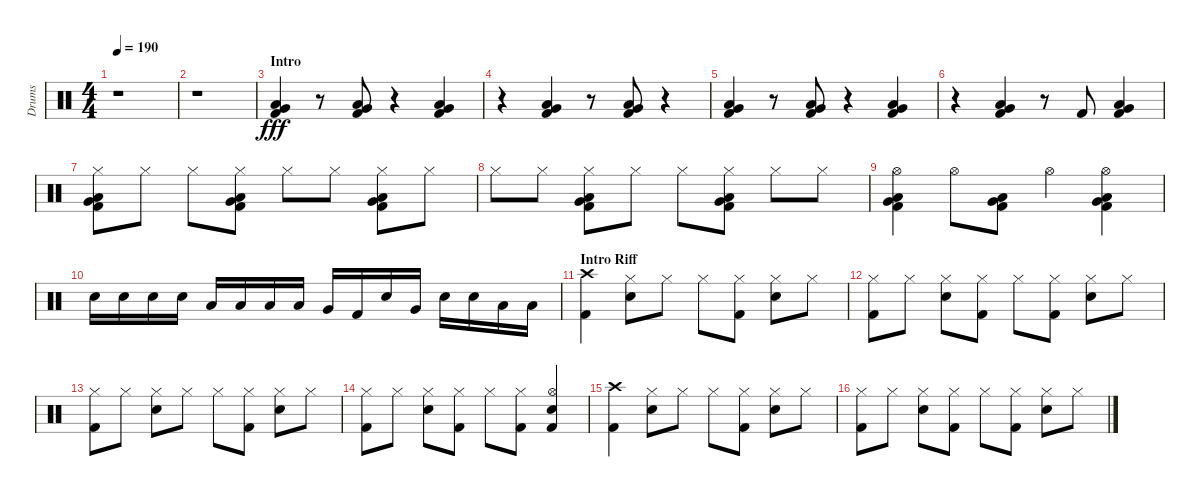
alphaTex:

\track ("Drums" "Drums") {instrument percussion}
\staff {score}
\articulation defaults
\ts (4 4)
\tempo 190
\clef neutral
\ks aminor
r.1{dy fff} |
r.1 |
\section ("" "Intro")
("Kick (hit) 2" "Low Floor Tom (hit)" "Very Low Tom (hit)").4 r.8 ("Kick (hit) 2" "Low Floor Tom (hit)" "Very Low Tom (hit)").8 r.4 ("Kick (hit) 2" "Low Floor Tom (hit)" "Very Low Tom (hit)").4 |
r.4 ("Kick (hit) 2" "Low Floor Tom (hit)" "Very Low Tom (hit)").4 r.8 ("Low Floor Tom (hit)" "Kick (hit) 2" "Very Low Tom (hit)").8 r.4 |
("Kick (hit) 2" "Low Floor Tom (hit)" "Very Low Tom (hit)").4 r.8 ("Kick (hit) 2" "Low Floor Tom (hit)" "Very Low Tom (hit)").8 r.4 ("Low Floor Tom (hit)" "Kick (hit) 2" "Very Low Tom (hit)").4 |
r.4 ("Low Floor Tom (hit)" "Kick (hit) 2" "Very Low Tom (hit)").4 r.8 "Kick (hit) 2".8 ("Kick (hit) 2" "Low Floor Tom (hit)" "Very Low Tom (hit)").4 |
("Low Floor Tom (hit)" "Hi-Hat (closed)" "Kick (hit) 2" "Very Low Tom (hit)").8 "Hi-Hat (closed)".8 "Hi-Hat (closed)".8 ("Kick (hit) 2" "Low Floor Tom (hit)" "Hi-Hat (closed)" "Very Low Tom (hit)").8 "Hi-Hat (closed)".8 "Hi-Hat (closed)".8 ("Kick (hit) 2" "Hi-Hat (closed)" "Low Floor Tom (hit)" "Very Low Tom (hit)").8 "Hi-Hat (closed)".8 |
"Hi-Hat (closed)".8 "Hi-Hat (closed)".8 ("Kick (hit) 2" "Low Floor Tom (hit)" "Hi-Hat (closed)" "Very Low Tom (hit)").8 "Hi-Hat (closed)".8 "Hi-Hat (closed)".8 ("Kick (hit) 2" "Low Floor Tom (hit)" "Hi-Hat (closed)" "Very Low Tom (hit)").8 "Hi-Hat (closed)".8 "Hi-Hat (closed)".8 |
("Kick (hit) 2" "Very Low Tom (hit)" "Low Floor Tom (hit)" "Hi-Hat (open)").4 "Hi-Hat (open)".8 ("Kick (hit) 2" "Low Floor Tom (hit)" "Very Low Tom (hit)").8 "Hi-Hat (open)".4 ("Kick (hit) 2" "Very Low Tom (hit)" "Low Floor Tom (hit)" "Hi-Hat (open)").4 |
"Snare (hit) 2".16 "Snare (hit) 2".16 "Snare (hit) 2".16 "Snare (hit) 2".16 "Low Tom (hit)".16 "Low Tom (hit)".16 "Low Tom (hit)".16 "Low Tom (hit)".16 "Very Low Tom (hit)".16 "Kick (hit) 2".16 "Snare (hit) 2".16 "Very Low Tom (hit)".16 "Snare (hit) 2".16 "Snare (hit) 2".16 "Low Floor Tom (hit)".16 "Low Floor Tom (hit)".16 |
\section ("" "Intro Riff")
("Kick (hit) 2" "Crash high (hit)").4 ("Snare (hit) 2" "Hi-Hat (closed)").8 "Hi-Hat (closed)".8 "Hi-Hat (closed)".8 ("Kick (hit) 2" "Hi-Hat (closed)").8 ("Snare (hit) 2" "Hi-Hat (closed)").8 "Hi-Hat (closed)".8 |
("Kick (hit) 2" "Hi-Hat (closed)").8 "Hi-Hat (closed)".8 ("Snare (hit) 2" "Hi-Hat (closed)").8 ("Kick (hit) 2" "Hi-Hat (closed)").8 "Hi-Hat (closed)".8 ("Kick (hit) 2" "Hi-Hat (closed)").8 ("Snare (hit) 2" "Hi-Hat (closed)").8 "Hi-Hat (closed)".8 |
("Kick (hit) 2" "Hi-Hat (closed)").8 "Hi-Hat (closed)".8 ("Snare (hit) 2" "Hi-Hat (closed)").8 "Hi-Hat (closed)".8 "Hi-Hat (closed)".8 ("Kick (hit) 2" "Hi-Hat (closed)").8 ("Snare (hit) 2" "Hi-Hat (closed)").8 "Hi-Hat (closed)".8 |
("Kick (hit) 2" "Hi-Hat (closed)").8 "Hi-Hat (closed)".8 ("Snare (hit) 2" "Hi-Hat (closed)").8 ("Kick (hit) 2" "Hi-Hat (closed)").8 "Hi-Hat (closed)".8 ("Hi-Hat (closed)" "Kick (hit) 2").8 ("Snare (hit) 2" "Hi-Hat (open)" "Kick (hit) 2").4 |
("Crash high (hit)" "Kick (hit) 2").4 ("Snare (hit) 2" "Hi-Hat (closed)").8 "Hi-Hat (closed)".8 "Hi-Hat (closed)".8 ("Kick (hit) 2" "Hi-Hat (closed)").8 ("Snare (hit) 2" "Hi-Hat (closed)").8 "Hi-Hat (closed)".8 |
("Kick (hit) 2" "Hi-Hat (closed)").8 "Hi-Hat (closed)".8 ("Hi-Hat (closed)" "Snare (hit) 2").8 ("Kick (hit) 2" "Hi-Hat (closed)").8 "Hi-Hat (closed)".8 ("Kick (hit) 2" "Hi-Hat (closed)").8 ("Snare (hit) 2" "Hi-Hat (closed)").8 "Hi-Hat (closed)".8
